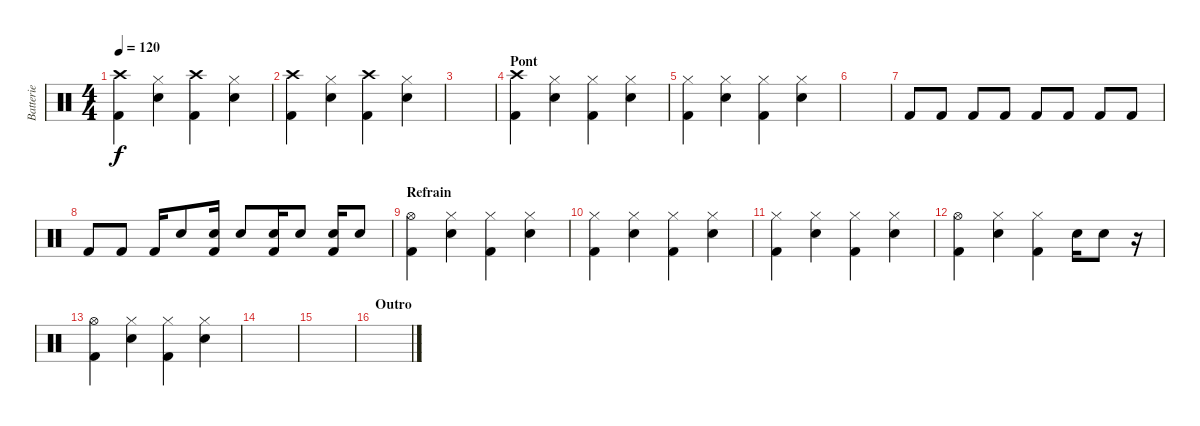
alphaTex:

\track ("Batterie" "Batterie") {instrument percussion}
\staff {score}
\articulation defaults
\ts (4 4)
\tempo 120
\clef neutral
\ks c
("Crash high (hit)" "Kick (hit) 2").4{dy f} ("Hi-Hat (closed)" "Snare (hit) 2").4 ("Crash high (hit)" "Kick (hit) 2").4 ("Hi-Hat (closed)" "Snare (hit) 2").4 |
("Crash high (hit)" "Kick (hit) 2").4 ("Hi-Hat (closed)" "Snare (hit) 2").4 ("Crash high (hit)" "Kick (hit) 2").4 ("Hi-Hat (closed)" "Snare (hit) 2").4 |
|
\section ("" "Pont")
("Crash high (hit)" "Kick (hit) 2").4 ("Hi-Hat (closed)" "Snare (hit) 2").4 ("Hi-Hat (closed)" "Kick (hit) 2").4 ("Hi-Hat (closed)" "Snare (hit) 2").4 |
("Hi-Hat (closed)" "Kick (hit) 2").4 ("Hi-Hat (closed)" "Snare (hit) 2").4 ("Hi-Hat (closed)" "Kick (hit) 2").4 ("Hi-Hat (closed)" "Snare (hit) 2").4 |
|
"Kick (hit) 2".8 "Kick (hit) 2".8 "Kick (hit) 2".8 "Kick (hit) 2".8 "Kick (hit) 2".8 "Kick (hit) 2".8 "Kick (hit) 2".8 "Kick (hit) 2".8 |
"Kick (hit) 2".8 "Kick (hit) 2".8 "Kick (hit) 2".16 "Snare (hit) 2".8 ("Snare (hit) 2" "Kick (hit) 2").16 "Snare (hit) 2".8 ("Snare (hit) 2" "Kick (hit) 2").16 "Snare (hit) 2".8 ("Snare (hit) 2" "Kick (hit) 2").16 "Snare (hit) 2".8 |
\section ("" "Refrain")
("Hi-Hat (open)" "Kick (hit) 2").4 ("Hi-Hat (closed)" "Snare (hit) 2").4 ("Hi-Hat (closed)" "Kick (hit) 2").4 ("Hi-Hat (closed)" "Snare (hit) 2").4 |
("Hi-Hat (closed)" "Kick (hit) 2").4 ("Hi-Hat (closed)" "Snare (hit) 2").4 ("Hi-Hat (closed)" "Kick (hit) 2").4 ("Hi-Hat (closed)" "Snare (hit) 2").4 |
("Hi-Hat (closed)" "Kick (hit) 2").4 ("Hi-Hat (closed)" "Snare (hit) 2").4 ("Hi-Hat (closed)" "Kick (hit) 2").4 ("Hi-Hat (closed)" "Snare (hit) 2").4 |
("Hi-Hat (open)" "Kick (hit) 2").4 ("Hi-Hat (closed)" "Snare (hit) 2").4 ("Hi-Hat (closed)" "Kick (hit) 2").4 "Snare (hit) 2".16 "Snare (hit) 2".8 r.16 |
("Hi-Hat (open)" "Kick (hit) 2").4 ("Hi-Hat (closed)" "Snare (hit) 2").4 ("Hi-Hat (closed)" "Kick (hit) 2").4 ("Hi-Hat (closed)" "Snare (hit) 2").4 |
|
|
\section ("" "Outro")
